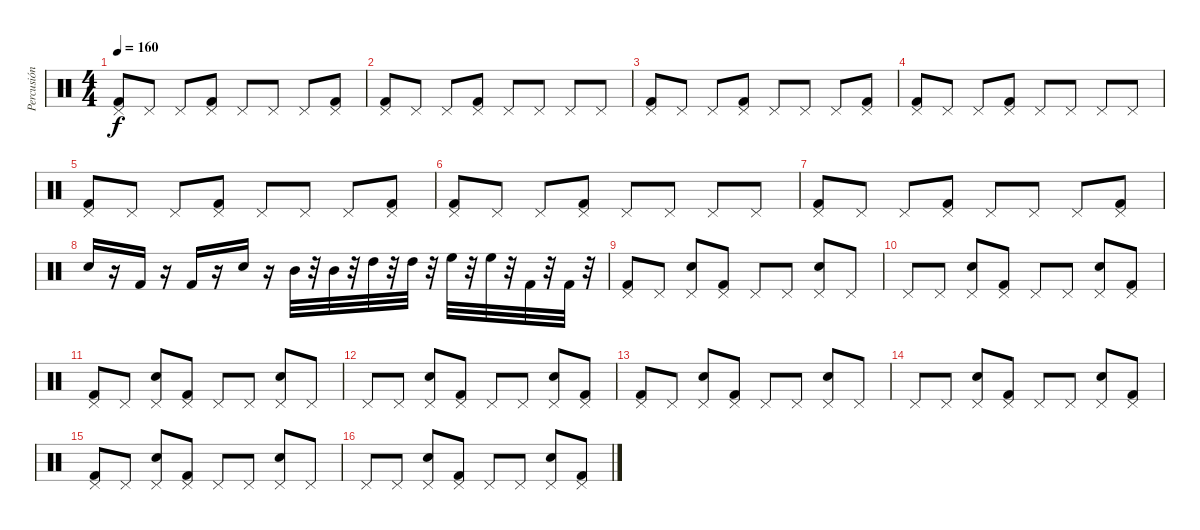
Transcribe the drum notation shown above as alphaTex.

\track ("Percusión" "Percusión") {instrument percussion}
\staff {score}
\articulation defaults
\ts (4 4)
\tempo 160
\clef neutral
\ks c
("Pedal Hi-Hat (hit)" "Kick (hit) 2").8{dy f} "Pedal Hi-Hat (hit)".8 "Pedal Hi-Hat (hit)".8 ("Pedal Hi-Hat (hit)" "Kick (hit) 2").8 "Pedal Hi-Hat (hit)".8 "Pedal Hi-Hat (hit)".8 "Pedal Hi-Hat (hit)".8 ("Pedal Hi-Hat (hit)" "Kick (hit) 2").8 |
("Pedal Hi-Hat (hit)" "Kick (hit) 2").8 "Pedal Hi-Hat (hit)".8 "Pedal Hi-Hat (hit)".8 ("Pedal Hi-Hat (hit)" "Kick (hit) 2").8 "Pedal Hi-Hat (hit)".8 "Pedal Hi-Hat (hit)".8 "Pedal Hi-Hat (hit)".8 "Pedal Hi-Hat (hit)".8 |
("Pedal Hi-Hat (hit)" "Kick (hit) 2").8 "Pedal Hi-Hat (hit)".8 "Pedal Hi-Hat (hit)".8 ("Pedal Hi-Hat (hit)" "Kick (hit) 2").8 "Pedal Hi-Hat (hit)".8 "Pedal Hi-Hat (hit)".8 "Pedal Hi-Hat (hit)".8 ("Pedal Hi-Hat (hit)" "Kick (hit) 2").8 |
("Pedal Hi-Hat (hit)" "Kick (hit) 2").8 "Pedal Hi-Hat (hit)".8 "Pedal Hi-Hat (hit)".8 ("Pedal Hi-Hat (hit)" "Kick (hit) 2").8 "Pedal Hi-Hat (hit)".8 "Pedal Hi-Hat (hit)".8 "Pedal Hi-Hat (hit)".8 "Pedal Hi-Hat (hit)".8 |
("Pedal Hi-Hat (hit)" "Kick (hit) 2").8 "Pedal Hi-Hat (hit)".8 "Pedal Hi-Hat (hit)".8 ("Pedal Hi-Hat (hit)" "Kick (hit) 2").8 "Pedal Hi-Hat (hit)".8 "Pedal Hi-Hat (hit)".8 "Pedal Hi-Hat (hit)".8 ("Pedal Hi-Hat (hit)" "Kick (hit) 2").8 |
("Pedal Hi-Hat (hit)" "Kick (hit) 2").8 "Pedal Hi-Hat (hit)".8 "Pedal Hi-Hat (hit)".8 ("Pedal Hi-Hat (hit)" "Kick (hit) 2").8 "Pedal Hi-Hat (hit)".8 "Pedal Hi-Hat (hit)".8 "Pedal Hi-Hat (hit)".8 "Pedal Hi-Hat (hit)".8 |
("Pedal Hi-Hat (hit)" "Kick (hit) 2").8 "Pedal Hi-Hat (hit)".8 "Pedal Hi-Hat (hit)".8 ("Pedal Hi-Hat (hit)" "Kick (hit) 2").8 "Pedal Hi-Hat (hit)".8 "Pedal Hi-Hat (hit)".8 "Pedal Hi-Hat (hit)".8 ("Pedal Hi-Hat (hit)" "Kick (hit) 2").8 |
"Electric Snare (hit)".16 r.16 "Kick (hit) 2".16 r.16 "Kick (hit) 2".16 r.16 "Electric Snare (hit)".16 r.16 "Mid Tom (hit)".32 r.32 "Mid Tom (hit)".32 r.32 "High Tom (hit)".32 r.32 "High Tom (hit)".32 r.32 "High Floor Tom (hit)".32 r.32 "High Floor Tom (hit)".32 r.32 "Kick (hit) 2".32 r.32 "Kick (hit) 2".32 r.32 |
("Pedal Hi-Hat (hit)" "Kick (hit) 2").8 "Pedal Hi-Hat (hit)".8 ("Pedal Hi-Hat (hit)" "Electric Snare (hit)").8 ("Pedal Hi-Hat (hit)" "Kick (hit) 2").8 "Pedal Hi-Hat (hit)".8 "Pedal Hi-Hat (hit)".8 ("Pedal Hi-Hat (hit)" "Electric Snare (hit)").8 "Pedal Hi-Hat (hit)".8 |
"Pedal Hi-Hat (hit)".8 "Pedal Hi-Hat (hit)".8 ("Pedal Hi-Hat (hit)" "Electric Snare (hit)").8 ("Pedal Hi-Hat (hit)" "Kick (hit) 2").8 "Pedal Hi-Hat (hit)".8 "Pedal Hi-Hat (hit)".8 ("Pedal Hi-Hat (hit)" "Electric Snare (hit)").8 ("Pedal Hi-Hat (hit)" "Kick (hit) 2").8 |
("Pedal Hi-Hat (hit)" "Kick (hit) 2").8 "Pedal Hi-Hat (hit)".8 ("Pedal Hi-Hat (hit)" "Electric Snare (hit)").8 ("Pedal Hi-Hat (hit)" "Kick (hit) 2").8 "Pedal Hi-Hat (hit)".8 "Pedal Hi-Hat (hit)".8 ("Pedal Hi-Hat (hit)" "Electric Snare (hit)").8 "Pedal Hi-Hat (hit)".8 |
"Pedal Hi-Hat (hit)".8 "Pedal Hi-Hat (hit)".8 ("Pedal Hi-Hat (hit)" "Electric Snare (hit)").8 ("Pedal Hi-Hat (hit)" "Kick (hit) 2").8 "Pedal Hi-Hat (hit)".8 "Pedal Hi-Hat (hit)".8 ("Pedal Hi-Hat (hit)" "Electric Snare (hit)").8 ("Pedal Hi-Hat (hit)" "Kick (hit) 2").8 |
("Pedal Hi-Hat (hit)" "Kick (hit) 2").8 "Pedal Hi-Hat (hit)".8 ("Pedal Hi-Hat (hit)" "Electric Snare (hit)").8 ("Pedal Hi-Hat (hit)" "Kick (hit) 2").8 "Pedal Hi-Hat (hit)".8 "Pedal Hi-Hat (hit)".8 ("Pedal Hi-Hat (hit)" "Electric Snare (hit)").8 "Pedal Hi-Hat (hit)".8 |
"Pedal Hi-Hat (hit)".8 "Pedal Hi-Hat (hit)".8 ("Pedal Hi-Hat (hit)" "Electric Snare (hit)").8 ("Pedal Hi-Hat (hit)" "Kick (hit) 2").8 "Pedal Hi-Hat (hit)".8 "Pedal Hi-Hat (hit)".8 ("Pedal Hi-Hat (hit)" "Electric Snare (hit)").8 ("Pedal Hi-Hat (hit)" "Kick (hit) 2").8 |
("Pedal Hi-Hat (hit)" "Kick (hit) 2").8 "Pedal Hi-Hat (hit)".8 ("Pedal Hi-Hat (hit)" "Electric Snare (hit)").8 ("Pedal Hi-Hat (hit)" "Kick (hit) 2").8 "Pedal Hi-Hat (hit)".8 "Pedal Hi-Hat (hit)".8 ("Pedal Hi-Hat (hit)" "Electric Snare (hit)").8 "Pedal Hi-Hat (hit)".8 |
"Pedal Hi-Hat (hit)".8 "Pedal Hi-Hat (hit)".8 ("Pedal Hi-Hat (hit)" "Electric Snare (hit)").8 ("Pedal Hi-Hat (hit)" "Kick (hit) 2").8 "Pedal Hi-Hat (hit)".8 "Pedal Hi-Hat (hit)".8 ("Pedal Hi-Hat (hit)" "Electric Snare (hit)").8 ("Pedal Hi-Hat (hit)" "Kick (hit) 2").8
